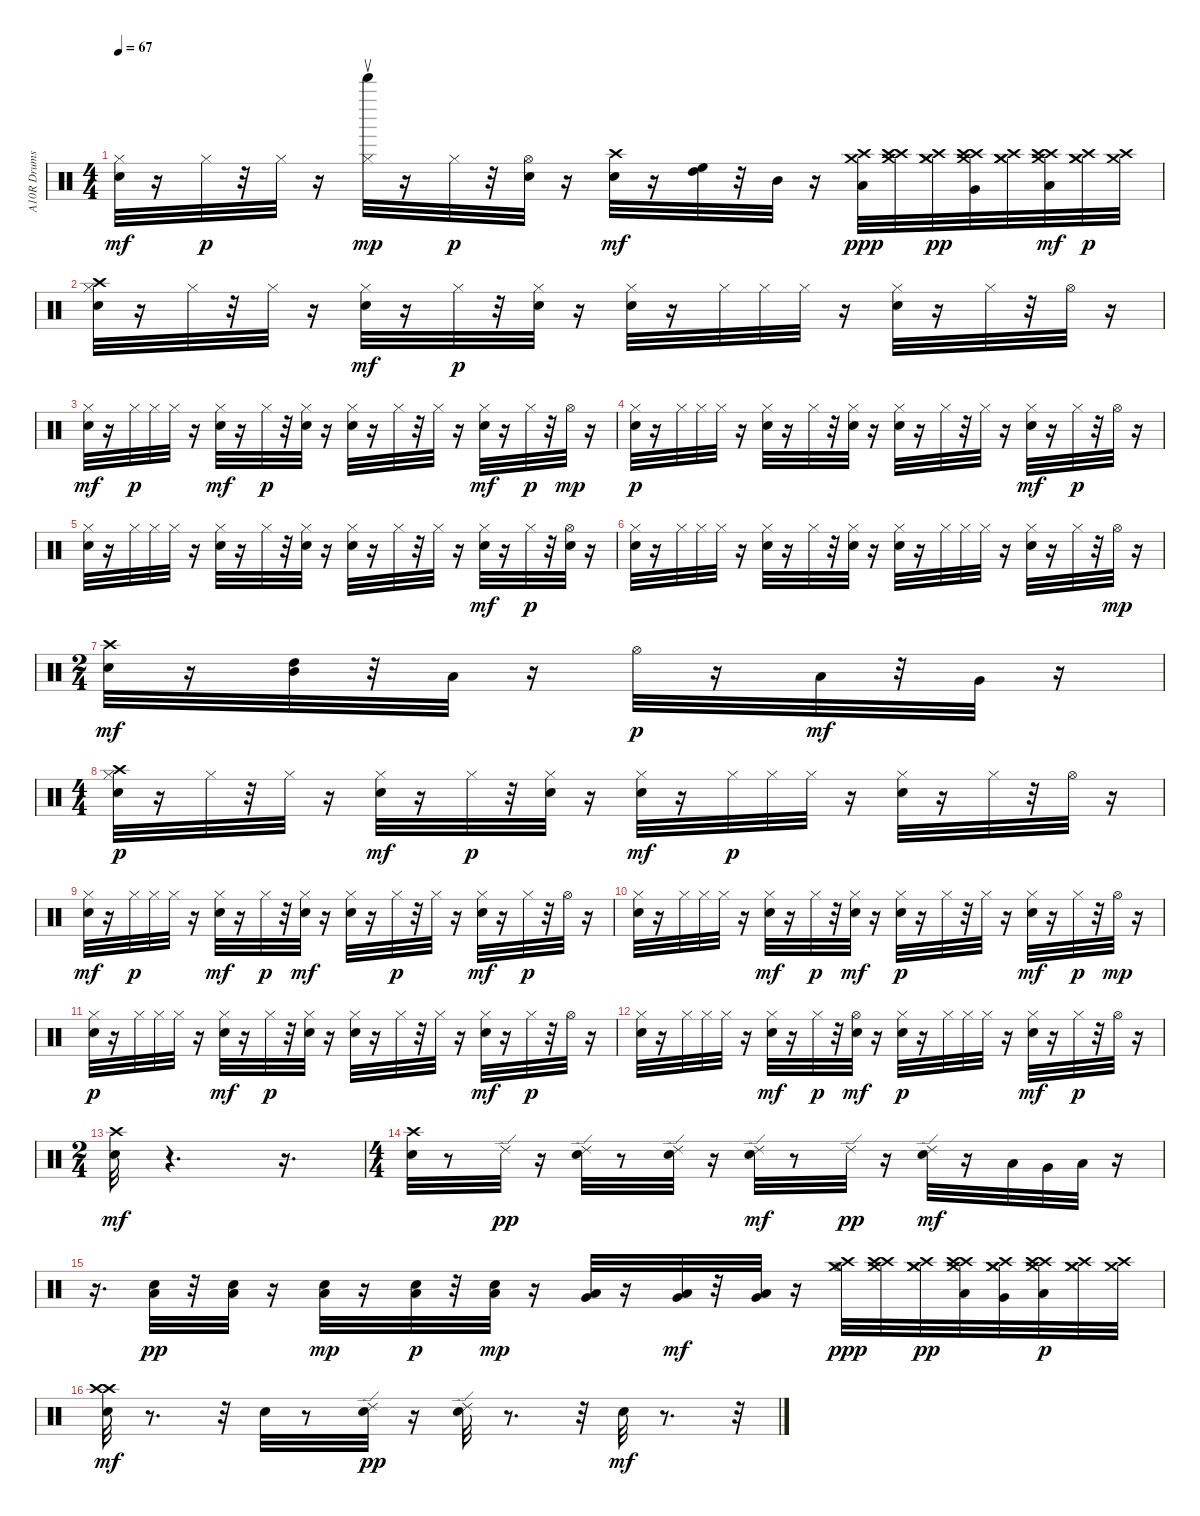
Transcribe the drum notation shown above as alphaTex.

\track ("A10R Drums" "A10R Drums") {instrument percussion}
\staff {score}
\articulation defaults
\ts (4 4)
\tempo 67
\clef neutral
\ks c
("Hi-Hat (closed)" "Snare (hit)").32{dy mf} r.16 "Hi-Hat (closed)".32{dy p} r.32 "Hi-Hat (closed)".32 r.16 ("Hi-Hat (closed)" "Bell Tee (return)").32{dy mp} r.16 "Hi-Hat (closed)".32{dy p} r.32 ("Snare (hit)" "Hi-Hat (open)").32 r.16 ("Crash high (hit)" "Snare (hit)").32{dy mf} r.16 ("High Tom (hit)" "High Floor Tom (hit)").32 r.32 "Mid Tom (hit)".32 r.16 ("Crash high (hit)" "Low Tom (hit)" "Crash medium (hit)").32{dy ppp} ("Crash high (hit)" "Crash medium (hit)" "Crash high (hit)").32 ("Crash medium (hit)" "Crash high (hit)" "Crash medium (hit)").32{dy pp} ("Very Low Tom (hit)" "Crash high (hit)" "Crash medium (hit)" "Crash high (hit)").32 ("Crash medium (hit)" "Crash high (hit)" "Crash medium (hit)").32 ("Crash high (hit)" "Crash medium (hit)" "Crash high (hit)" "Low Floor Tom (hit)").32{dy mf} ("Crash medium (hit)" "Crash high (hit)" "Crash medium (hit)").32{dy p} ("Crash high (hit)" "Crash medium (hit)").32 |
("Crash high (hit)" "Snare (hit)" "Hi-Hat (closed)").32 r.16 "Hi-Hat (closed)".32 r.32 "Hi-Hat (closed)".32 r.16 ("Hi-Hat (closed)" "Snare (hit)").32{dy mf} r.16 "Hi-Hat (closed)".32{dy p} r.32 ("Snare (hit)" "Hi-Hat (closed)").32 r.16 ("Snare (hit)" "Hi-Hat (closed)").32 r.16 "Hi-Hat (closed)".32 "Hi-Hat (closed)".32 "Hi-Hat (closed)".32 r.16 ("Snare (hit)" "Hi-Hat (closed)").32 r.16 "Hi-Hat (closed)".32 r.32 "Hi-Hat (open)".32 r.16 |
("Hi-Hat (closed)" "Snare (hit)").32{dy mf} r.16 "Hi-Hat (closed)".32{dy p} "Hi-Hat (closed)".32 "Hi-Hat (closed)".32 r.16 ("Hi-Hat (closed)" "Snare (hit)").32{dy mf} r.16 "Hi-Hat (closed)".32{dy p} r.32 ("Snare (hit)" "Hi-Hat (closed)").32 r.16 ("Snare (hit)" "Hi-Hat (closed)").32 r.16 "Hi-Hat (closed)".32 r.32 "Hi-Hat (closed)".32 r.16 ("Hi-Hat (closed)" "Snare (hit)").32{dy mf} r.16 "Hi-Hat (closed)".32{dy p} r.32 "Hi-Hat (open)".32{dy mp} r.16 |
("Snare (hit)" "Hi-Hat (closed)").32{dy p} r.16 "Hi-Hat (closed)".32 "Hi-Hat (closed)".32 "Hi-Hat (closed)".32 r.16 ("Snare (hit)" "Hi-Hat (closed)").32 r.16 "Hi-Hat (closed)".32 r.32 ("Snare (hit)" "Hi-Hat (closed)").32 r.16 ("Snare (hit)" "Hi-Hat (closed)").32 r.16 "Hi-Hat (closed)".32 r.32 "Hi-Hat (closed)".32 r.16 ("Hi-Hat (closed)" "Snare (hit)").32{dy mf} r.16 "Hi-Hat (closed)".32{dy p} r.32 "Hi-Hat (open)".32 r.16 |
("Snare (hit)" "Hi-Hat (closed)").32 r.16 "Hi-Hat (closed)".32 "Hi-Hat (closed)".32 "Hi-Hat (closed)".32 r.16 ("Snare (hit)" "Hi-Hat (closed)").32 r.16 "Hi-Hat (closed)".32 r.32 ("Snare (hit)" "Hi-Hat (closed)").32 r.16 ("Snare (hit)" "Hi-Hat (closed)").32 r.16 "Hi-Hat (closed)".32 r.32 "Hi-Hat (closed)".32 r.16 ("Hi-Hat (closed)" "Snare (hit)").32{dy mf} r.16 "Hi-Hat (closed)".32{dy p} r.32 ("Snare (hit)" "Hi-Hat (open)").32 r.16 |
("Snare (hit)" "Hi-Hat (closed)").32 r.16 "Hi-Hat (closed)".32 "Hi-Hat (closed)".32 "Hi-Hat (closed)".32 r.16 ("Snare (hit)" "Hi-Hat (closed)").32 r.16 "Hi-Hat (closed)".32 r.32 ("Snare (hit)" "Hi-Hat (closed)").32 r.16 ("Snare (hit)" "Hi-Hat (closed)").32 r.16 "Hi-Hat (closed)".32 "Hi-Hat (closed)".32 "Hi-Hat (closed)".32 r.16 ("Snare (hit)" "Hi-Hat (closed)").32 r.16 "Hi-Hat (closed)".32 r.32 "Hi-Hat (open)".32{dy mp} r.16 |
\ts (2 4)
("Snare (hit)" "Crash high (hit)").32{dy mf} r.16 ("Mid Tom (hit)" "High Tom (hit)").32 r.32 "Low Tom (hit)".32 r.16 "Hi-Hat (open)".32{dy p} r.16 "Low Tom (hit)".32{dy mf} r.32 "Very Low Tom (hit)".32 r.16 |
\ts (4 4)
("Crash high (hit)" "Snare (hit)" "Hi-Hat (closed)").32{dy p} r.16 "Hi-Hat (closed)".32 r.32 "Hi-Hat (closed)".32 r.16 ("Hi-Hat (closed)" "Snare (hit)").32{dy mf} r.16 "Hi-Hat (closed)".32{dy p} r.32 ("Snare (hit)" "Hi-Hat (closed)").32 r.16 ("Hi-Hat (closed)" "Snare (hit)").32{dy mf} r.16 "Hi-Hat (closed)".32{dy p} "Hi-Hat (closed)".32 "Hi-Hat (closed)".32 r.16 ("Snare (hit)" "Hi-Hat (closed)").32 r.16 "Hi-Hat (closed)".32 r.32 "Hi-Hat (open)".32 r.16 |
("Hi-Hat (closed)" "Snare (hit)").32{dy mf} r.16 "Hi-Hat (closed)".32{dy p} "Hi-Hat (closed)".32 "Hi-Hat (closed)".32 r.16 ("Hi-Hat (closed)" "Snare (hit)").32{dy mf} r.16 "Hi-Hat (closed)".32{dy p} r.32 ("Hi-Hat (closed)" "Snare (hit)").32{dy mf} r.16 ("Hi-Hat (closed)" "Snare (hit)").32 r.16 "Hi-Hat (closed)".32{dy p} r.32 "Hi-Hat (closed)".32 r.16 ("Hi-Hat (closed)" "Snare (hit)").32{dy mf} r.16 "Hi-Hat (closed)".32{dy p} r.32 "Hi-Hat (open)".32 r.16 |
("Snare (hit)" "Hi-Hat (closed)").32 r.16 "Hi-Hat (closed)".32 "Hi-Hat (closed)".32 "Hi-Hat (closed)".32 r.16 ("Hi-Hat (closed)" "Snare (hit)").32{dy mf} r.16 "Hi-Hat (closed)".32{dy p} r.32 ("Hi-Hat (closed)" "Snare (hit)").32{dy mf} r.16 ("Snare (hit)" "Hi-Hat (closed)").32{dy p} r.16 "Hi-Hat (closed)".32 r.32 "Hi-Hat (closed)".32 r.16 ("Hi-Hat (closed)" "Snare (hit)").32{dy mf} r.16 "Hi-Hat (closed)".32{dy p} r.32 "Hi-Hat (open)".32{dy mp} r.16 |
("Snare (hit)" "Hi-Hat (closed)").32{dy p} r.16 "Hi-Hat (closed)".32 "Hi-Hat (closed)".32 "Hi-Hat (closed)".32 r.16 ("Hi-Hat (closed)" "Snare (hit)").32{dy mf} r.16 "Hi-Hat (closed)".32{dy p} r.32 ("Snare (hit)" "Hi-Hat (closed)").32 r.16 ("Snare (hit)" "Hi-Hat (closed)").32 r.16 "Hi-Hat (closed)".32 r.32 "Hi-Hat (closed)".32 r.16 ("Hi-Hat (closed)" "Snare (hit)").32{dy mf} r.16 "Hi-Hat (closed)".32{dy p} r.32 "Hi-Hat (open)".32 r.16 |
("Snare (hit)" "Hi-Hat (closed)").32 r.16 "Hi-Hat (closed)".32 "Hi-Hat (closed)".32 "Hi-Hat (closed)".32 r.16 ("Hi-Hat (closed)" "Snare (hit)").32{dy mf} r.16 "Hi-Hat (closed)".32{dy p} r.32 ("Hi-Hat (open)" "Snare (hit)").32{dy mf} r.16 ("Hi-Hat (closed)" "Snare (hit)").32{dy p} r.16 "Hi-Hat (closed)".32 "Hi-Hat (closed)".32 "Hi-Hat (closed)".32 r.16 ("Hi-Hat (closed)" "Snare (hit)").32{dy mf} r.16 "Hi-Hat (closed)".32{dy p} r.32 "Hi-Hat (open)".32 r.16 |
\ts (2 4)
("Crash high (hit)" "Snare (hit)").32{dy mf} r.4{d} r.16{d} |
\ts (4 4)
("Crash high (hit)" "Snare (hit)").32 r.8 "Ride (edge) 2".32{dy pp} r.16 ("Snare (hit)" "Ride (edge) 2").32 r.8 ("Snare (hit)" "Ride (edge) 2").32 r.16 ("Ride (edge) 2" "Snare (hit)").32{dy mf} r.8 "Ride (edge) 2".32{dy pp} r.16 ("Ride (edge) 2" "Snare (hit)").32{dy mf} r.16 "Low Tom (hit)".32 "Very Low Tom (hit)".32 "Low Floor Tom (hit)".32 r.16 |
r.16{d} ("Low Floor Tom (hit)" "Snare (hit)").32{dy pp} r.32 ("Low Floor Tom (hit)" "Snare (hit)").32 r.16 ("Low Floor Tom (hit)" "Snare (hit)").32{dy mp} r.16 ("Snare (hit)" "Low Floor Tom (hit)").32{dy p} r.32 ("Low Floor Tom (hit)" "Snare (hit)").32{dy mp} r.16 ("Very Low Tom (hit)" "Low Tom (hit)").32 r.16 ("Low Floor Tom (hit)" "Very Low Tom (hit)").32{dy mf} r.32 ("Very Low Tom (hit)" "Low Tom (hit)").32 r.16 ("Crash high (hit)" "Hi-Hat (open)" "Crash medium (hit)").32{dy ppp} ("Crash high (hit)" "Crash medium (hit)" "Crash high (hit)").32 ("Crash medium (hit)" "Crash high (hit)" "Crash medium (hit)").32{dy pp} ("Crash high (hit)" "Low Tom (hit)" "Crash medium (hit)" "Crash high (hit)").32 ("Crash medium (hit)" "Very Low Tom (hit)" "Crash high (hit)" "Crash medium (hit)").32 ("Crash high (hit)" "Crash medium (hit)" "Low Floor Tom (hit)" "Crash high (hit)").32{dy p} ("Crash medium (hit)" "Crash high (hit)" "Crash medium (hit)").32 ("Crash high (hit)" "Crash medium (hit)").32 |
("Crash high (hit)" "Crash high (hit)" "Snare (hit)").32{dy mf} r.8{d} r.32 "Snare (hit)".32 r.8 ("Snare (hit)" "Ride (edge) 2").32{dy pp} r.16 ("Snare (hit)" "Ride (edge) 2").32 r.8{d} r.32 "Snare (hit)".32{dy mf} r.8{d} r.32
